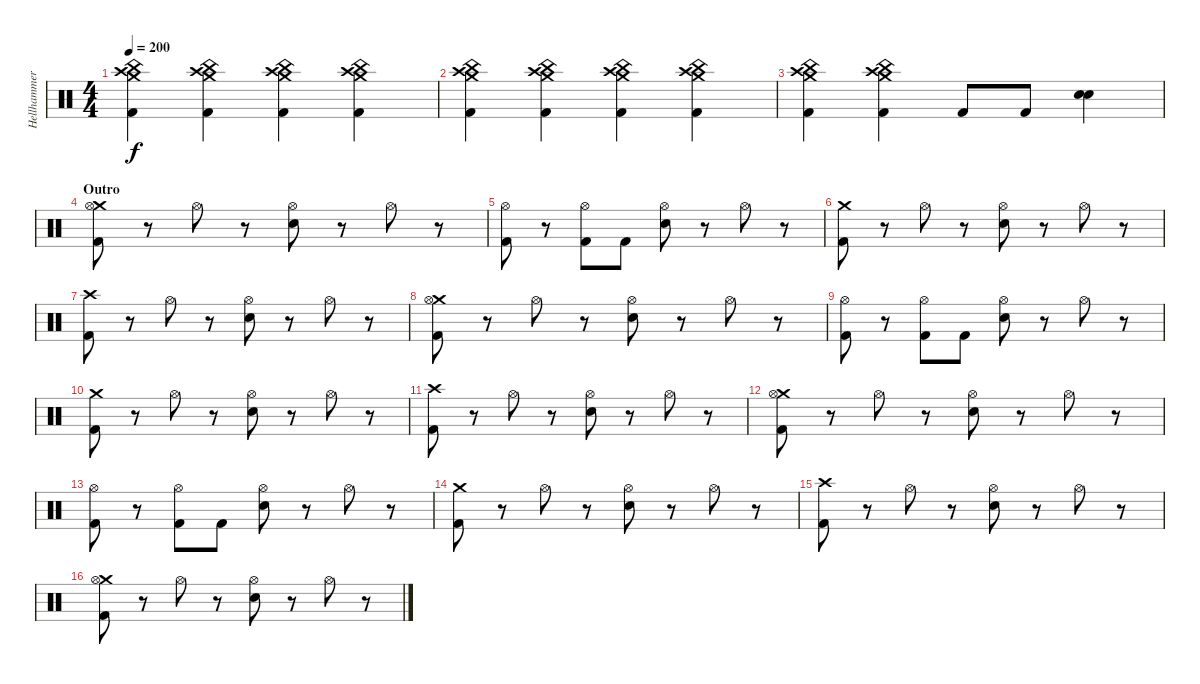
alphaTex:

\track ("Hellhammer" "Hellhammer") {instrument percussion}
\staff {score}
\articulation defaults
\ts (4 4)
\tempo 200
\clef neutral
\ks c
("China (hit)" "Crash medium (hit)" "Crash high (hit)" "Kick (hit) 2").4{dy f} ("China (hit)" "Crash medium (hit)" "Crash high (hit)" "Kick (hit) 2").4 ("China (hit)" "Crash medium (hit)" "Crash high (hit)" "Kick (hit) 2").4 ("China (hit)" "Crash medium (hit)" "Crash high (hit)" "Kick (hit) 2").4 |
("China (hit)" "Crash medium (hit)" "Crash high (hit)" "Kick (hit) 2").4 ("China (hit)" "Crash medium (hit)" "Crash high (hit)" "Kick (hit) 2").4 ("China (hit)" "Crash medium (hit)" "Crash high (hit)" "Kick (hit) 2").4 ("China (hit)" "Crash medium (hit)" "Crash high (hit)" "Kick (hit) 2").4 |
("China (hit)" "Crash medium (hit)" "Crash high (hit)" "Kick (hit) 2").4 ("China (hit)" "Crash medium (hit)" "Crash high (hit)" "Kick (hit) 2").4 "Kick (hit) 2".8 "Kick (hit) 2".8 ("Electric Snare (hit)" "Electric Snare (hit)").4{bd 480} |
\section ("" "Outro")
("Crash medium (hit)" "Hi-Hat (open)" "Kick (hit) 2").8 r.8 "Hi-Hat (open)".8 r.8 ("Hi-Hat (open)" "Electric Snare (hit)").8 r.8 "Hi-Hat (open)".8 r.8 |
("Hi-Hat (open)" "Kick (hit) 2").8 r.8 ("Hi-Hat (open)" "Kick (hit) 2").8 "Kick (hit) 2".8 ("Hi-Hat (open)" "Electric Snare (hit)").8 r.8 "Hi-Hat (open)".8 r.8 |
("Crash medium (hit)" "Kick (hit) 2").8 r.8 "Hi-Hat (open)".8 r.8 ("Hi-Hat (open)" "Electric Snare (hit)").8 r.8 "Hi-Hat (open)".8 r.8 |
("Crash high (hit)" "Kick (hit) 2").8 r.8 "Hi-Hat (open)".8 r.8 ("Hi-Hat (open)" "Electric Snare (hit)").8 r.8 "Hi-Hat (open)".8 r.8 |
("Crash medium (hit)" "Hi-Hat (open)" "Kick (hit) 2").8 r.8 "Hi-Hat (open)".8 r.8 ("Hi-Hat (open)" "Electric Snare (hit)").8 r.8 "Hi-Hat (open)".8 r.8 |
("Hi-Hat (open)" "Kick (hit) 2").8 r.8 ("Hi-Hat (open)" "Kick (hit) 2").8 "Kick (hit) 2".8 ("Hi-Hat (open)" "Electric Snare (hit)").8 r.8 "Hi-Hat (open)".8 r.8 |
("Crash medium (hit)" "Kick (hit) 2").8 r.8 "Hi-Hat (open)".8 r.8 ("Hi-Hat (open)" "Electric Snare (hit)").8 r.8 "Hi-Hat (open)".8 r.8 |
("Crash high (hit)" "Kick (hit) 2").8 r.8 "Hi-Hat (open)".8 r.8 ("Hi-Hat (open)" "Electric Snare (hit)").8 r.8 "Hi-Hat (open)".8 r.8 |
("Crash medium (hit)" "Hi-Hat (open)" "Kick (hit) 2").8 r.8 "Hi-Hat (open)".8 r.8 ("Hi-Hat (open)" "Electric Snare (hit)").8 r.8 "Hi-Hat (open)".8 r.8 |
("Hi-Hat (open)" "Kick (hit) 2").8 r.8 ("Hi-Hat (open)" "Kick (hit) 2").8 "Kick (hit) 2".8 ("Hi-Hat (open)" "Electric Snare (hit)").8 r.8 "Hi-Hat (open)".8 r.8 |
("Crash medium (hit)" "Kick (hit) 2").8 r.8 "Hi-Hat (open)".8 r.8 ("Hi-Hat (open)" "Electric Snare (hit)").8 r.8 "Hi-Hat (open)".8 r.8 |
("Crash high (hit)" "Kick (hit) 2").8 r.8 "Hi-Hat (open)".8 r.8 ("Hi-Hat (open)" "Electric Snare (hit)").8 r.8 "Hi-Hat (open)".8 r.8 |
("Crash medium (hit)" "Hi-Hat (open)" "Kick (hit) 2").8 r.8 "Hi-Hat (open)".8 r.8 ("Hi-Hat (open)" "Electric Snare (hit)").8 r.8 "Hi-Hat (open)".8 r.8
